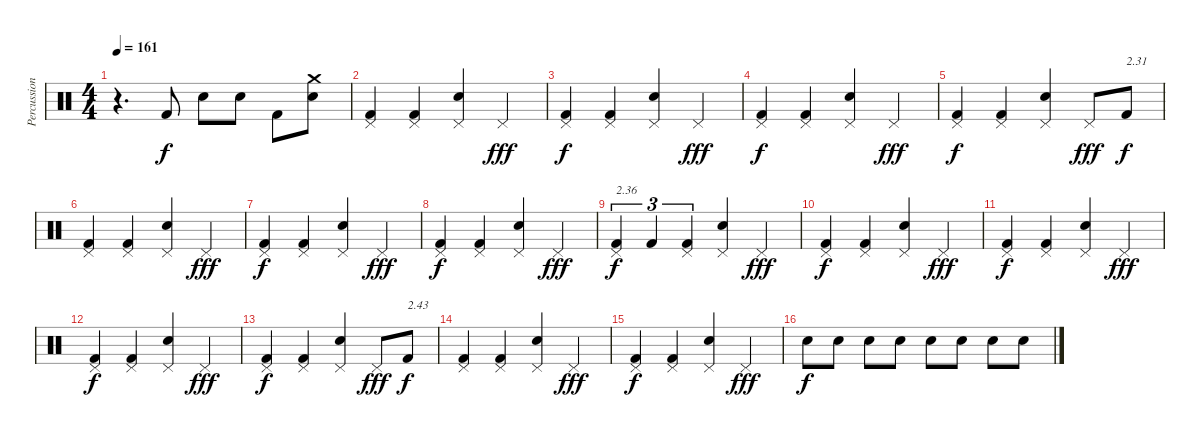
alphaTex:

\track ("Percussions" "Percussion") {instrument percussion}
\staff {score}
\articulation defaults
\ts (4 4)
\tempo 161
\clef neutral
\ks c
r.4{d dy f} "Kick (hit) 2".8 "Electric Snare (hit)".8 "Electric Snare (hit)".8 "Kick (hit) 2".8 ("Electric Snare (hit)" "Crash medium (hit)").8 |
("Kick (hit) 2" "Pedal Hi-Hat (hit)").4 ("Kick (hit) 2" "Pedal Hi-Hat (hit)").4 ("Electric Snare (hit)" "Pedal Hi-Hat (hit)").4 "Pedal Hi-Hat (hit)".4{dy fff} |
("Kick (hit) 2" "Pedal Hi-Hat (hit)").4{dy f} ("Kick (hit) 2" "Pedal Hi-Hat (hit)").4 ("Electric Snare (hit)" "Pedal Hi-Hat (hit)").4 "Pedal Hi-Hat (hit)".4{dy fff} |
("Kick (hit) 2" "Pedal Hi-Hat (hit)").4{dy f} ("Kick (hit) 2" "Pedal Hi-Hat (hit)").4 ("Electric Snare (hit)" "Pedal Hi-Hat (hit)").4 "Pedal Hi-Hat (hit)".4{dy fff} |
("Kick (hit) 2" "Pedal Hi-Hat (hit)").4{dy f} ("Kick (hit) 2" "Pedal Hi-Hat (hit)").4 ("Electric Snare (hit)" "Pedal Hi-Hat (hit)").4 "Pedal Hi-Hat (hit)".8{dy fff} "Kick (hit) 2".8{txt "2.31" dy f} |
("Kick (hit) 2" "Pedal Hi-Hat (hit)").4 ("Kick (hit) 2" "Pedal Hi-Hat (hit)").4 ("Electric Snare (hit)" "Pedal Hi-Hat (hit)").4 "Pedal Hi-Hat (hit)".4{dy fff} |
("Kick (hit) 2" "Pedal Hi-Hat (hit)").4{dy f} ("Kick (hit) 2" "Pedal Hi-Hat (hit)").4 ("Electric Snare (hit)" "Pedal Hi-Hat (hit)").4 "Pedal Hi-Hat (hit)".4{dy fff} |
("Kick (hit) 2" "Pedal Hi-Hat (hit)").4{dy f} ("Kick (hit) 2" "Pedal Hi-Hat (hit)").4 ("Electric Snare (hit)" "Pedal Hi-Hat (hit)").4 "Pedal Hi-Hat (hit)".4{dy fff} |
("Kick (hit) 2" "Pedal Hi-Hat (hit)").4{tu (3 2) txt "2.36" dy f} "Kick (hit) 2".4{tu (3 2)} ("Kick (hit) 2" "Pedal Hi-Hat (hit)").4{tu (3 2)} ("Electric Snare (hit)" "Pedal Hi-Hat (hit)").4 "Pedal Hi-Hat (hit)".4{dy fff} |
("Kick (hit) 2" "Pedal Hi-Hat (hit)").4{dy f} ("Kick (hit) 2" "Pedal Hi-Hat (hit)").4 ("Electric Snare (hit)" "Pedal Hi-Hat (hit)").4 "Pedal Hi-Hat (hit)".4{dy fff} |
("Kick (hit) 2" "Pedal Hi-Hat (hit)").4{dy f} ("Kick (hit) 2" "Pedal Hi-Hat (hit)").4 ("Electric Snare (hit)" "Pedal Hi-Hat (hit)").4 "Pedal Hi-Hat (hit)".4{dy fff} |
("Kick (hit) 2" "Pedal Hi-Hat (hit)").4{dy f} ("Kick (hit) 2" "Pedal Hi-Hat (hit)").4 ("Electric Snare (hit)" "Pedal Hi-Hat (hit)").4 "Pedal Hi-Hat (hit)".4{dy fff} |
("Kick (hit) 2" "Pedal Hi-Hat (hit)").4{dy f} ("Kick (hit) 2" "Pedal Hi-Hat (hit)").4 ("Electric Snare (hit)" "Pedal Hi-Hat (hit)").4 "Pedal Hi-Hat (hit)".8{dy fff} "Kick (hit) 2".8{txt "2.43" dy f} |
("Kick (hit) 2" "Pedal Hi-Hat (hit)").4 ("Kick (hit) 2" "Pedal Hi-Hat (hit)").4 ("Electric Snare (hit)" "Pedal Hi-Hat (hit)").4 "Pedal Hi-Hat (hit)".4{dy fff} |
("Kick (hit) 2" "Pedal Hi-Hat (hit)").4{dy f} ("Kick (hit) 2" "Pedal Hi-Hat (hit)").4 ("Electric Snare (hit)" "Pedal Hi-Hat (hit)").4 "Pedal Hi-Hat (hit)".4{dy fff} |
"Electric Snare (hit)".8{dy f volume 8} "Electric Snare (hit)".8{volume 16} "Electric Snare (hit)".8 "Electric Snare (hit)".8 "Electric Snare (hit)".8 "Electric Snare (hit)".8 "Electric Snare (hit)".8 "Electric Snare (hit)".8
